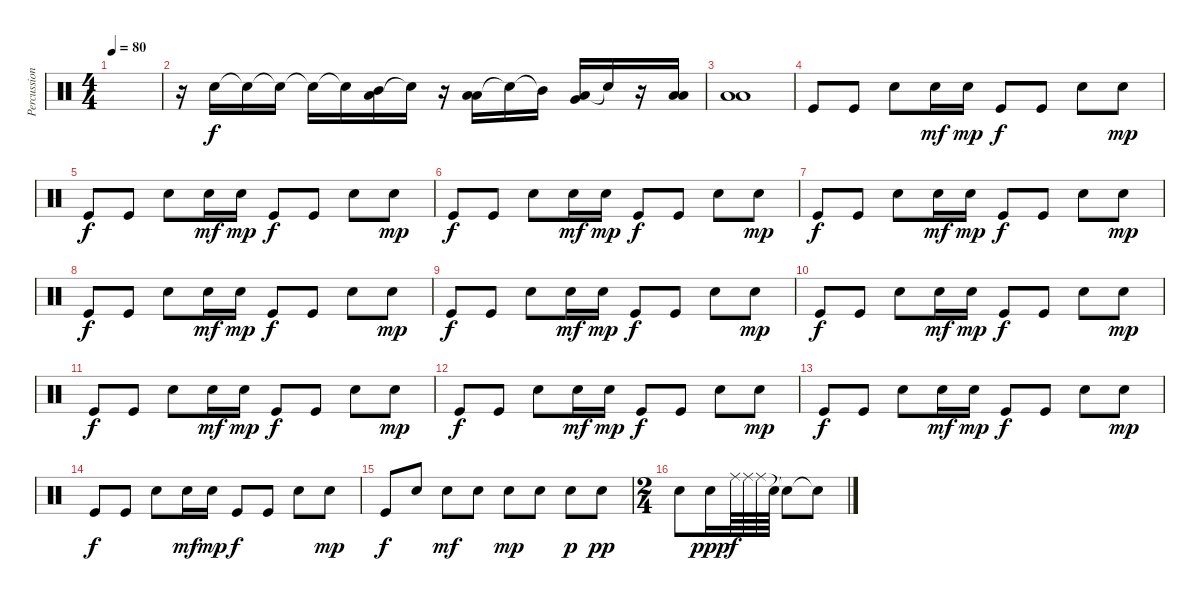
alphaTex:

\track ("Percussion" "Percussion") {instrument percussion}
\staff {score}
\articulation defaults
\ts (4 4)
\tempo 80
\clef neutral
\ks c
|
r.16 "Snare (hit)"{t}.16 "Snare (hit)"{t}.16 "Snare (hit)"{t}.16 "Snare (hit)"{t}.16 "Snare (hit)"{t}.16 ("Low Floor Tom (hit)" "Mid Tom (hit)").16{bd 480} "Snare (hit)"{t}.16 r.16 ("Low Floor Tom (hit)" "Low Tom (hit)").16{bd 480} "Snare (hit)"{t}.16 "Mid Tom (hit)"{t}.16 ("Low Floor Tom (hit)" "Very Low Tom (hit)").16{bd 480} "Snare (hit)"{t}.16 r.16 ("Low Floor Tom (hit)" "Low Floor Tom (hit)").16{bd 480} |
("Low Floor Tom (hit)" "Low Floor Tom (hit)").1 |
"Kick (hit)".8 "Kick (hit)".8 "Hand Clap (hit)".8 "Hand Clap (hit)".16{dy mf} "Hand Clap (hit)".16{dy mp} "Kick (hit)".8{dy f} "Kick (hit)".8 "Hand Clap (hit)".8 "Hand Clap (hit)".8{dy mp} |
"Kick (hit)".8{dy f} "Kick (hit)".8 "Hand Clap (hit)".8 "Hand Clap (hit)".16{dy mf} "Hand Clap (hit)".16{dy mp} "Kick (hit)".8{dy f} "Kick (hit)".8 "Hand Clap (hit)".8 "Hand Clap (hit)".8{dy mp} |
"Kick (hit)".8{dy f} "Kick (hit)".8 "Hand Clap (hit)".8 "Hand Clap (hit)".16{dy mf} "Hand Clap (hit)".16{dy mp} "Kick (hit)".8{dy f} "Kick (hit)".8 "Hand Clap (hit)".8 "Hand Clap (hit)".8{dy mp} |
"Kick (hit)".8{dy f} "Kick (hit)".8 "Hand Clap (hit)".8 "Hand Clap (hit)".16{dy mf} "Hand Clap (hit)".16{dy mp} "Kick (hit)".8{dy f} "Kick (hit)".8 "Hand Clap (hit)".8 "Hand Clap (hit)".8{dy mp} |
"Kick (hit)".8{dy f} "Kick (hit)".8 "Hand Clap (hit)".8 "Hand Clap (hit)".16{dy mf} "Hand Clap (hit)".16{dy mp} "Kick (hit)".8{dy f} "Kick (hit)".8 "Hand Clap (hit)".8 "Hand Clap (hit)".8{dy mp} |
"Kick (hit)".8{dy f} "Kick (hit)".8 "Hand Clap (hit)".8 "Hand Clap (hit)".16{dy mf} "Hand Clap (hit)".16{dy mp} "Kick (hit)".8{dy f} "Kick (hit)".8 "Hand Clap (hit)".8 "Hand Clap (hit)".8{dy mp} |
"Kick (hit)".8{dy f} "Kick (hit)".8 "Hand Clap (hit)".8 "Hand Clap (hit)".16{dy mf} "Hand Clap (hit)".16{dy mp} "Kick (hit)".8{dy f} "Kick (hit)".8 "Hand Clap (hit)".8 "Hand Clap (hit)".8{dy mp} |
"Kick (hit)".8{dy f} "Kick (hit)".8 "Hand Clap (hit)".8 "Hand Clap (hit)".16{dy mf} "Hand Clap (hit)".16{dy mp} "Kick (hit)".8{dy f} "Kick (hit)".8 "Hand Clap (hit)".8 "Hand Clap (hit)".8{dy mp} |
"Kick (hit)".8{dy f} "Kick (hit)".8 "Hand Clap (hit)".8 "Hand Clap (hit)".16{dy mf} "Hand Clap (hit)".16{dy mp} "Kick (hit)".8{dy f} "Kick (hit)".8 "Hand Clap (hit)".8 "Hand Clap (hit)".8{dy mp} |
"Kick (hit)".8{dy f} "Kick (hit)".8 "Hand Clap (hit)".8 "Hand Clap (hit)".16{dy mf} "Hand Clap (hit)".16{dy mp} "Kick (hit)".8{dy f} "Kick (hit)".8 "Hand Clap (hit)".8 "Hand Clap (hit)".8{dy mp} |
"Kick (hit)".8{dy f} "Kick (hit)".8 "Hand Clap (hit)".8 "Hand Clap (hit)".16{dy mf} "Hand Clap (hit)".16{dy mp} "Kick (hit)".8{dy f} "Kick (hit)".8 "Hand Clap (hit)".8 "Hand Clap (hit)".8{dy mp} |
"Kick (hit)".8{dy f} "Hand Clap (hit)".8 "Hand Clap (hit)".8{dy mf} "Hand Clap (hit)".8 "Hand Clap (hit)".8{dy mp} "Hand Clap (hit)".8 "Hand Clap (hit)".8{dy p} "Hand Clap (hit)".8{dy pp} |
\ts (2 4)
"Hand Clap (hit)".8 "Hand Clap (hit)".16{dy ppp} "Ride (middle)".64{dy f} "Ride (middle)".64 "Ride (middle)".64 "Snare (hit)"{t}.64 "Snare (hit)"{t}.8 "Snare (hit)"{t}.8
